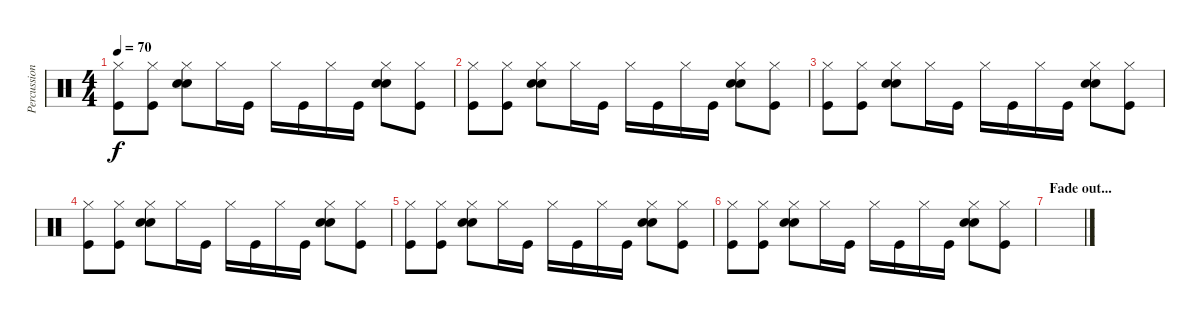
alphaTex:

\track ("Percussion" "Percussion") {instrument percussion}
\staff {score}
\articulation defaults
\ts (4 4)
\tempo 70
\clef neutral
\ks c
("Kick (hit)" "Hi-Hat (closed)").8{dy f} ("Kick (hit)" "Hi-Hat (closed)").8 ("Snare (hit) 2" "Electric Snare (hit)" "Hi-Hat (closed)").8 "Hi-Hat (closed)".16 "Kick (hit)".16 "Hi-Hat (closed)".16 "Kick (hit)".16 "Hi-Hat (closed)".16 "Kick (hit)".16 ("Snare (hit) 2" "Electric Snare (hit)" "Hi-Hat (closed)").8 ("Kick (hit)" "Hi-Hat (closed)").8 |
("Kick (hit)" "Hi-Hat (closed)").8 ("Kick (hit)" "Hi-Hat (closed)").8 ("Snare (hit) 2" "Electric Snare (hit)" "Hi-Hat (closed)").8 "Hi-Hat (closed)".16 "Kick (hit)".16 "Hi-Hat (closed)".16 "Kick (hit)".16 "Hi-Hat (closed)".16 "Kick (hit)".16 ("Snare (hit) 2" "Electric Snare (hit)" "Hi-Hat (closed)").8 ("Kick (hit)" "Hi-Hat (closed)").8 |
("Kick (hit)" "Hi-Hat (closed)").8 ("Kick (hit)" "Hi-Hat (closed)").8 ("Snare (hit) 2" "Electric Snare (hit)" "Hi-Hat (closed)").8 "Hi-Hat (closed)".16 "Kick (hit)".16 "Hi-Hat (closed)".16 "Kick (hit)".16 "Hi-Hat (closed)".16 "Kick (hit)".16 ("Snare (hit) 2" "Electric Snare (hit)" "Hi-Hat (closed)").8 ("Kick (hit)" "Hi-Hat (closed)").8 |
("Kick (hit)" "Hi-Hat (closed)").8 ("Kick (hit)" "Hi-Hat (closed)").8 ("Snare (hit) 2" "Electric Snare (hit)" "Hi-Hat (closed)").8 "Hi-Hat (closed)".16 "Kick (hit)".16 "Hi-Hat (closed)".16 "Kick (hit)".16 "Hi-Hat (closed)".16 "Kick (hit)".16 ("Snare (hit) 2" "Electric Snare (hit)" "Hi-Hat (closed)").8 ("Kick (hit)" "Hi-Hat (closed)").8 |
("Kick (hit)" "Hi-Hat (closed)").8 ("Kick (hit)" "Hi-Hat (closed)").8 ("Snare (hit) 2" "Electric Snare (hit)" "Hi-Hat (closed)").8 "Hi-Hat (closed)".16 "Kick (hit)".16 "Hi-Hat (closed)".16 "Kick (hit)".16 "Hi-Hat (closed)".16 "Kick (hit)".16 ("Snare (hit) 2" "Electric Snare (hit)" "Hi-Hat (closed)").8 ("Kick (hit)" "Hi-Hat (closed)").8 |
("Kick (hit)" "Hi-Hat (closed)").8 ("Kick (hit)" "Hi-Hat (closed)").8 ("Snare (hit) 2" "Electric Snare (hit)" "Hi-Hat (closed)").8 "Hi-Hat (closed)".16 "Kick (hit)".16 "Hi-Hat (closed)".16 "Kick (hit)".16 "Hi-Hat (closed)".16 "Kick (hit)".16 ("Snare (hit) 2" "Electric Snare (hit)" "Hi-Hat (closed)").8 ("Kick (hit)" "Hi-Hat (closed)").8 |
\section ("" "Fade out...")
